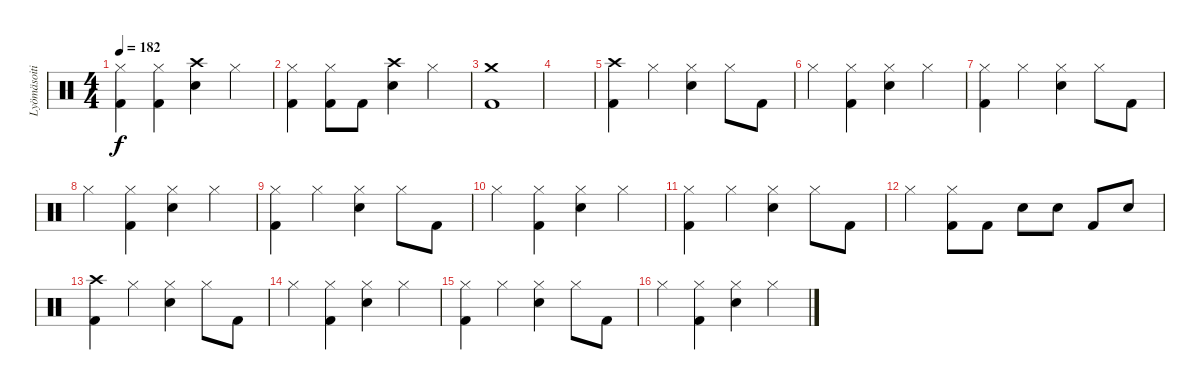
\track ("Lyömäsoitin" "Lyömäsoiti") {instrument percussion}
\staff {score}
\articulation defaults
\ts (4 4)
\tempo 182
\clef neutral
\ks c
("Hi-Hat (closed)" "Kick (hit) 2").4{dy f} ("Hi-Hat (closed)" "Kick (hit) 2").4 ("Crash high (hit)" "Electric Snare (hit)").4 "Hi-Hat (closed)".4 |
("Hi-Hat (closed)" "Kick (hit) 2").4 ("Hi-Hat (closed)" "Kick (hit) 2").8 "Kick (hit) 2".8 ("Crash high (hit)" "Electric Snare (hit)").4 "Hi-Hat (closed)".4 |
("Crash medium (hit)" "Kick (hit) 2").1 |
|
("Crash high (hit)" "Kick (hit) 2").4 "Hi-Hat (closed)".4 ("Hi-Hat (closed)" "Electric Snare (hit)").4 "Hi-Hat (closed)".8 "Kick (hit) 2".8 |
"Hi-Hat (closed)".4 ("Hi-Hat (closed)" "Kick (hit) 2").4 ("Hi-Hat (closed)" "Electric Snare (hit)").4 "Hi-Hat (closed)".4 |
("Hi-Hat (closed)" "Kick (hit) 2").4 "Hi-Hat (closed)".4 ("Hi-Hat (closed)" "Electric Snare (hit)").4 "Hi-Hat (closed)".8 "Kick (hit) 2".8 |
"Hi-Hat (closed)".4 ("Hi-Hat (closed)" "Kick (hit) 2").4 ("Hi-Hat (closed)" "Electric Snare (hit)").4 "Hi-Hat (closed)".4 |
("Hi-Hat (closed)" "Kick (hit) 2").4 "Hi-Hat (closed)".4 ("Hi-Hat (closed)" "Electric Snare (hit)").4 "Hi-Hat (closed)".8 "Kick (hit) 2".8 |
"Hi-Hat (closed)".4 ("Hi-Hat (closed)" "Kick (hit) 2").4 ("Hi-Hat (closed)" "Electric Snare (hit)").4 "Hi-Hat (closed)".4 |
("Hi-Hat (closed)" "Kick (hit) 2").4 "Hi-Hat (closed)".4 ("Hi-Hat (closed)" "Electric Snare (hit)").4 "Hi-Hat (closed)".8 "Kick (hit) 2".8 |
"Hi-Hat (closed)".4 ("Hi-Hat (closed)" "Kick (hit) 2").8 "Kick (hit) 2".8 "Electric Snare (hit)".8 "Electric Snare (hit)".8 "Kick (hit) 2".8 "Electric Snare (hit)".8 |
("Crash high (hit)" "Kick (hit) 2").4 "Hi-Hat (closed)".4 ("Hi-Hat (closed)" "Electric Snare (hit)").4 "Hi-Hat (closed)".8 "Kick (hit) 2".8 |
"Hi-Hat (closed)".4 ("Hi-Hat (closed)" "Kick (hit) 2").4 ("Hi-Hat (closed)" "Electric Snare (hit)").4 "Hi-Hat (closed)".4 |
("Hi-Hat (closed)" "Kick (hit) 2").4 "Hi-Hat (closed)".4 ("Hi-Hat (closed)" "Electric Snare (hit)").4 "Hi-Hat (closed)".8 "Kick (hit) 2".8 |
"Hi-Hat (closed)".4 ("Hi-Hat (closed)" "Kick (hit) 2").4 ("Hi-Hat (closed)" "Electric Snare (hit)").4 "Hi-Hat (closed)".4
